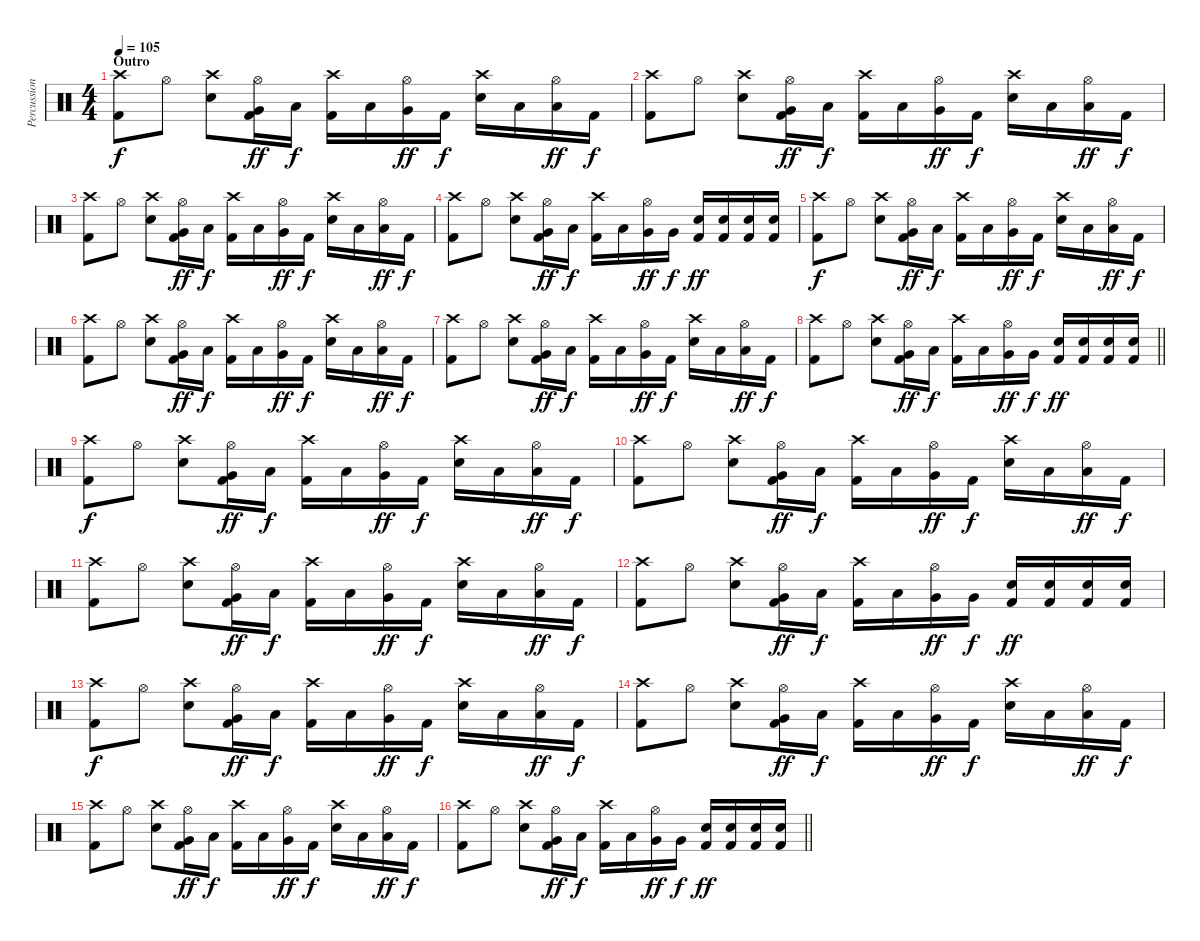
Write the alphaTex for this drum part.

\track ("Percussion" "Percussion") {instrument percussion}
\staff {score}
\articulation defaults
\ts (4 4)
\section ("" "Outro")
\tempo 105
\clef neutral
\ks c
("Crash high (hit)" "Kick (hit) 2").8{dy f} "Hi-Hat (open)".8 ("Crash high (hit)" "Electric Snare (hit)").8 ("Very Low Tom (hit)" "Hi-Hat (open)" "Kick (hit) 2").16{dy ff} "Low Tom (hit)".16{dy f} ("Crash high (hit)" "Kick (hit) 2").16 "Low Tom (hit)".16 ("Very Low Tom (hit)" "Hi-Hat (open)").16{dy ff} "Kick (hit) 2".16{dy f} ("Crash high (hit)" "Electric Snare (hit)").16 "Low Tom (hit)".16 ("Low Tom (hit)" "Hi-Hat (open)").16{dy ff} "Kick (hit) 2".16{dy f} |
("Crash high (hit)" "Kick (hit) 2").8 "Hi-Hat (open)".8 ("Crash high (hit)" "Electric Snare (hit)").8 ("Very Low Tom (hit)" "Hi-Hat (open)" "Kick (hit) 2").16{dy ff} "Low Tom (hit)".16{dy f} ("Crash high (hit)" "Kick (hit) 2").16 "Low Tom (hit)".16 ("Very Low Tom (hit)" "Hi-Hat (open)").16{dy ff} "Kick (hit) 2".16{dy f} ("Crash high (hit)" "Electric Snare (hit)").16 "Low Tom (hit)".16 ("Low Tom (hit)" "Hi-Hat (open)").16{dy ff} "Kick (hit) 2".16{dy f} |
("Crash high (hit)" "Kick (hit) 2").8 "Hi-Hat (open)".8 ("Crash high (hit)" "Electric Snare (hit)").8 ("Very Low Tom (hit)" "Hi-Hat (open)" "Kick (hit) 2").16{dy ff} "Low Tom (hit)".16{dy f} ("Crash high (hit)" "Kick (hit) 2").16 "Low Tom (hit)".16 ("Very Low Tom (hit)" "Hi-Hat (open)").16{dy ff} "Kick (hit) 2".16{dy f} ("Crash high (hit)" "Electric Snare (hit)").16 "Low Tom (hit)".16 ("Low Tom (hit)" "Hi-Hat (open)").16{dy ff} "Kick (hit) 2".16{dy f} |
("Crash high (hit)" "Kick (hit) 2").8 "Hi-Hat (open)".8 ("Crash high (hit)" "Electric Snare (hit)").8 ("Very Low Tom (hit)" "Hi-Hat (open)" "Kick (hit) 2").16{dy ff} "Low Tom (hit)".16{dy f} ("Crash high (hit)" "Kick (hit) 2").16 "Low Tom (hit)".16 ("Very Low Tom (hit)" "Hi-Hat (open)").16{dy ff} "Very Low Tom (hit)".16{dy f} ("Electric Snare (hit)" "Kick (hit) 2").16{dy ff} ("Electric Snare (hit)" "Kick (hit) 2").16 ("Electric Snare (hit)" "Kick (hit) 2").16 ("Electric Snare (hit)" "Kick (hit) 2").16 |
("Crash high (hit)" "Kick (hit) 2").8{dy f} "Hi-Hat (open)".8 ("Crash high (hit)" "Electric Snare (hit)").8 ("Very Low Tom (hit)" "Hi-Hat (open)" "Kick (hit) 2").16{dy ff} "Low Tom (hit)".16{dy f} ("Crash high (hit)" "Kick (hit) 2").16 "Low Tom (hit)".16 ("Very Low Tom (hit)" "Hi-Hat (open)").16{dy ff} "Kick (hit) 2".16{dy f} ("Crash high (hit)" "Electric Snare (hit)").16 "Low Tom (hit)".16 ("Low Tom (hit)" "Hi-Hat (open)").16{dy ff} "Kick (hit) 2".16{dy f} |
("Crash high (hit)" "Kick (hit) 2").8 "Hi-Hat (open)".8 ("Crash high (hit)" "Electric Snare (hit)").8 ("Very Low Tom (hit)" "Hi-Hat (open)" "Kick (hit) 2").16{dy ff} "Low Tom (hit)".16{dy f} ("Crash high (hit)" "Kick (hit) 2").16 "Low Tom (hit)".16 ("Very Low Tom (hit)" "Hi-Hat (open)").16{dy ff} "Kick (hit) 2".16{dy f} ("Crash high (hit)" "Electric Snare (hit)").16 "Low Tom (hit)".16 ("Low Tom (hit)" "Hi-Hat (open)").16{dy ff} "Kick (hit) 2".16{dy f} |
("Crash high (hit)" "Kick (hit) 2").8 "Hi-Hat (open)".8 ("Crash high (hit)" "Electric Snare (hit)").8 ("Very Low Tom (hit)" "Hi-Hat (open)" "Kick (hit) 2").16{dy ff} "Low Tom (hit)".16{dy f} ("Crash high (hit)" "Kick (hit) 2").16 "Low Tom (hit)".16 ("Very Low Tom (hit)" "Hi-Hat (open)").16{dy ff} "Kick (hit) 2".16{dy f} ("Crash high (hit)" "Electric Snare (hit)").16 "Low Tom (hit)".16 ("Low Tom (hit)" "Hi-Hat (open)").16{dy ff} "Kick (hit) 2".16{dy f} |
\barLineRight lightlight
("Crash high (hit)" "Kick (hit) 2").8 "Hi-Hat (open)".8 ("Crash high (hit)" "Electric Snare (hit)").8 ("Very Low Tom (hit)" "Hi-Hat (open)" "Kick (hit) 2").16{dy ff} "Low Tom (hit)".16{dy f} ("Crash high (hit)" "Kick (hit) 2").16 "Low Tom (hit)".16 ("Very Low Tom (hit)" "Hi-Hat (open)").16{dy ff} "Very Low Tom (hit)".16{dy f} ("Electric Snare (hit)" "Kick (hit) 2").16{dy ff} ("Electric Snare (hit)" "Kick (hit) 2").16 ("Electric Snare (hit)" "Kick (hit) 2").16 ("Electric Snare (hit)" "Kick (hit) 2").16 |
("Crash high (hit)" "Kick (hit) 2").8{dy f} "Hi-Hat (open)".8 ("Crash high (hit)" "Electric Snare (hit)").8 ("Very Low Tom (hit)" "Hi-Hat (open)" "Kick (hit) 2").16{dy ff} "Low Tom (hit)".16{dy f} ("Crash high (hit)" "Kick (hit) 2").16 "Low Tom (hit)".16 ("Very Low Tom (hit)" "Hi-Hat (open)").16{dy ff} "Kick (hit) 2".16{dy f} ("Crash high (hit)" "Electric Snare (hit)").16 "Low Tom (hit)".16 ("Low Tom (hit)" "Hi-Hat (open)").16{dy ff} "Kick (hit) 2".16{dy f} |
("Crash high (hit)" "Kick (hit) 2").8 "Hi-Hat (open)".8 ("Crash high (hit)" "Electric Snare (hit)").8 ("Very Low Tom (hit)" "Hi-Hat (open)" "Kick (hit) 2").16{dy ff} "Low Tom (hit)".16{dy f} ("Crash high (hit)" "Kick (hit) 2").16 "Low Tom (hit)".16 ("Very Low Tom (hit)" "Hi-Hat (open)").16{dy ff} "Kick (hit) 2".16{dy f} ("Crash high (hit)" "Electric Snare (hit)").16 "Low Tom (hit)".16 ("Low Tom (hit)" "Hi-Hat (open)").16{dy ff} "Kick (hit) 2".16{dy f} |
("Crash high (hit)" "Kick (hit) 2").8 "Hi-Hat (open)".8 ("Crash high (hit)" "Electric Snare (hit)").8 ("Very Low Tom (hit)" "Hi-Hat (open)" "Kick (hit) 2").16{dy ff} "Low Tom (hit)".16{dy f} ("Crash high (hit)" "Kick (hit) 2").16 "Low Tom (hit)".16 ("Very Low Tom (hit)" "Hi-Hat (open)").16{dy ff} "Kick (hit) 2".16{dy f} ("Crash high (hit)" "Electric Snare (hit)").16 "Low Tom (hit)".16 ("Low Tom (hit)" "Hi-Hat (open)").16{dy ff} "Kick (hit) 2".16{dy f} |
("Crash high (hit)" "Kick (hit) 2").8 "Hi-Hat (open)".8 ("Crash high (hit)" "Electric Snare (hit)").8 ("Very Low Tom (hit)" "Hi-Hat (open)" "Kick (hit) 2").16{dy ff} "Low Tom (hit)".16{dy f} ("Crash high (hit)" "Kick (hit) 2").16 "Low Tom (hit)".16 ("Very Low Tom (hit)" "Hi-Hat (open)").16{dy ff} "Very Low Tom (hit)".16{dy f} ("Electric Snare (hit)" "Kick (hit) 2").16{dy ff} ("Electric Snare (hit)" "Kick (hit) 2").16 ("Electric Snare (hit)" "Kick (hit) 2").16 ("Electric Snare (hit)" "Kick (hit) 2").16 |
("Crash high (hit)" "Kick (hit) 2").8{dy f} "Hi-Hat (open)".8 ("Crash high (hit)" "Electric Snare (hit)").8 ("Very Low Tom (hit)" "Hi-Hat (open)" "Kick (hit) 2").16{dy ff} "Low Tom (hit)".16{dy f} ("Crash high (hit)" "Kick (hit) 2").16 "Low Tom (hit)".16 ("Very Low Tom (hit)" "Hi-Hat (open)").16{dy ff} "Kick (hit) 2".16{dy f} ("Crash high (hit)" "Electric Snare (hit)").16 "Low Tom (hit)".16 ("Low Tom (hit)" "Hi-Hat (open)").16{dy ff} "Kick (hit) 2".16{dy f} |
("Crash high (hit)" "Kick (hit) 2").8 "Hi-Hat (open)".8 ("Crash high (hit)" "Electric Snare (hit)").8 ("Very Low Tom (hit)" "Hi-Hat (open)" "Kick (hit) 2").16{dy ff} "Low Tom (hit)".16{dy f} ("Crash high (hit)" "Kick (hit) 2").16 "Low Tom (hit)".16 ("Very Low Tom (hit)" "Hi-Hat (open)").16{dy ff} "Kick (hit) 2".16{dy f} ("Crash high (hit)" "Electric Snare (hit)").16 "Low Tom (hit)".16 ("Low Tom (hit)" "Hi-Hat (open)").16{dy ff} "Kick (hit) 2".16{dy f} |
("Crash high (hit)" "Kick (hit) 2").8 "Hi-Hat (open)".8 ("Crash high (hit)" "Electric Snare (hit)").8 ("Very Low Tom (hit)" "Hi-Hat (open)" "Kick (hit) 2").16{dy ff} "Low Tom (hit)".16{dy f} ("Crash high (hit)" "Kick (hit) 2").16 "Low Tom (hit)".16 ("Very Low Tom (hit)" "Hi-Hat (open)").16{dy ff} "Kick (hit) 2".16{dy f} ("Crash high (hit)" "Electric Snare (hit)").16 "Low Tom (hit)".16 ("Low Tom (hit)" "Hi-Hat (open)").16{dy ff} "Kick (hit) 2".16{dy f} |
\barLineRight lightlight
("Crash high (hit)" "Kick (hit) 2").8 "Hi-Hat (open)".8 ("Crash high (hit)" "Electric Snare (hit)").8 ("Very Low Tom (hit)" "Hi-Hat (open)" "Kick (hit) 2").16{dy ff} "Low Tom (hit)".16{dy f} ("Crash high (hit)" "Kick (hit) 2").16 "Low Tom (hit)".16 ("Very Low Tom (hit)" "Hi-Hat (open)").16{dy ff} "Very Low Tom (hit)".16{dy f} ("Electric Snare (hit)" "Kick (hit) 2").16{dy ff} ("Electric Snare (hit)" "Kick (hit) 2").16 ("Electric Snare (hit)" "Kick (hit) 2").16 ("Electric Snare (hit)" "Kick (hit) 2").16
